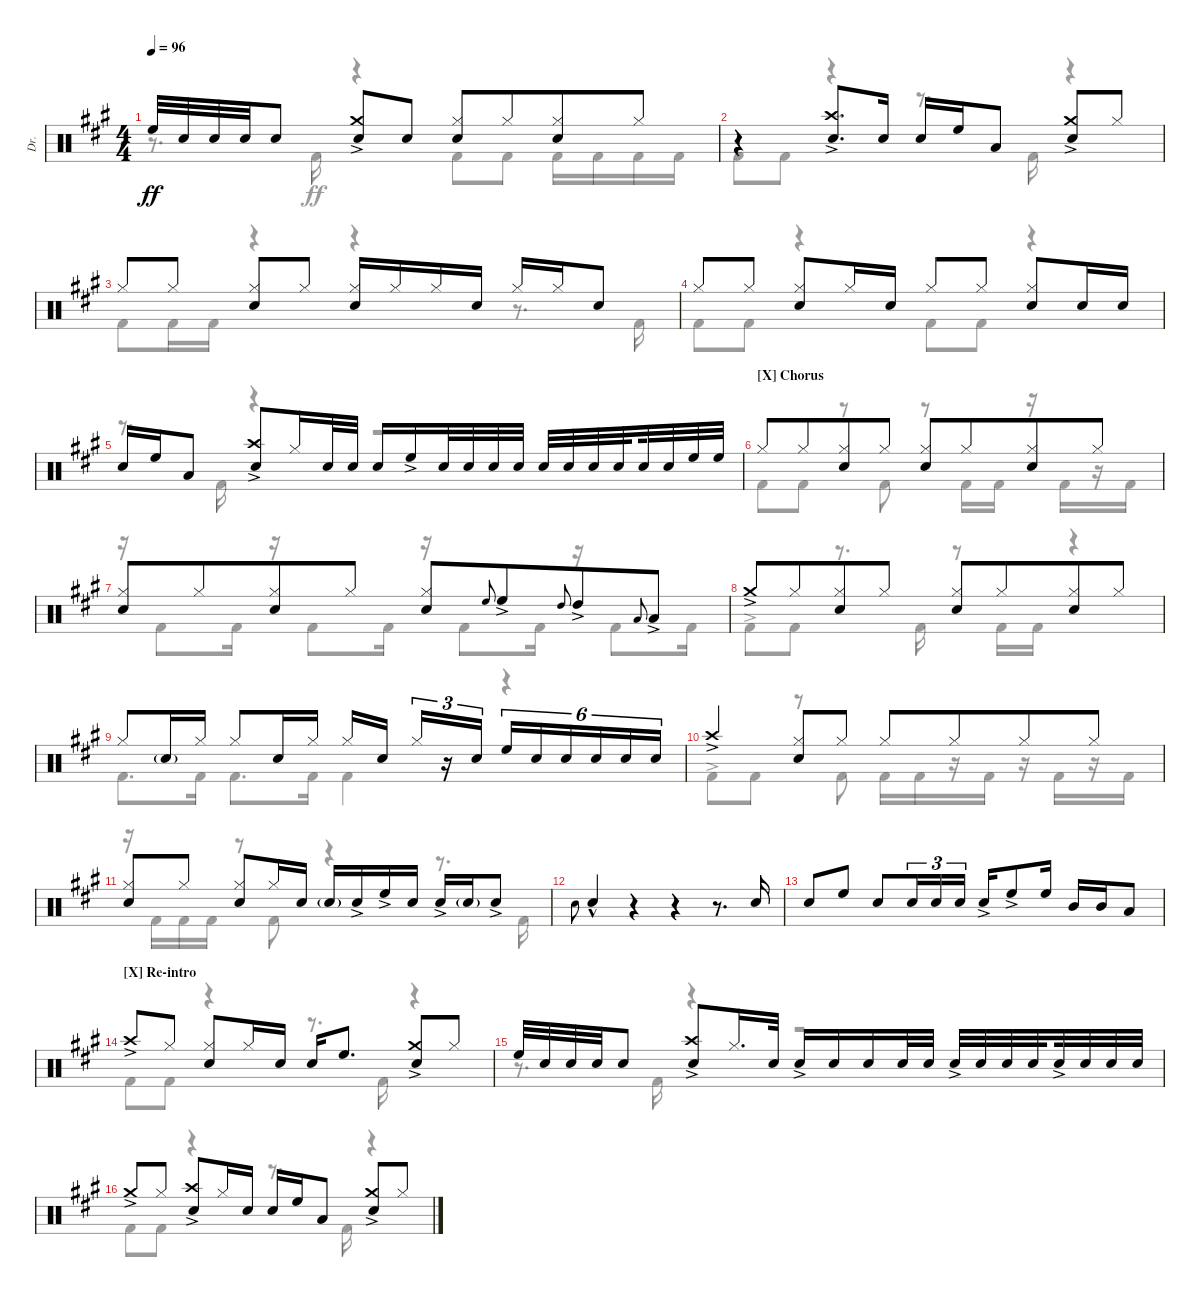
\defaultSystemsLayout 4
\bracketExtendMode groupsimilarinstruments
\otherSystemsTrackNameOrientation horizontal
\track ("Drums" "Dr.") {instrument percussion}
\staff {score}
\articulation defaults
\voice
\ts (4 4)
\tempo 96
\clef neutral
\ks a "High Floor Tom (hit)"{acc forcenatural}.32{dy ff} "Snare (hit) 2"{acc forcenatural}.32 "Snare (hit) 2"{acc forcenatural}.32 "Snare (hit) 2"{acc forcenatural}.32 "Snare (hit) 2"{acc forcenatural}.8
("Snare (hit) 2"{ac acc forcenatural} "Crash medium (hit)"{ac acc forcenatural}).8 "Snare (hit) 2"{acc forcenatural}.8 ("Snare (hit) 2"{acc forcenatural} "Hi-Hat (closed)"{acc forcenatural}).8 "Hi-Hat (closed)"{acc forcenatural}.8{beam merge} ("Hi-Hat (closed)"{acc forcenatural} "Snare (hit) 2"{acc forcenatural}).8 "Hi-Hat (closed)"{acc forcenatural}.8 |
r.4 ("Snare (hit) 2"{ac acc forcenatural} "Crash high (hit)"{ac acc forcenatural}).8{d} "Snare (hit) 2"{acc forcenatural}.16 "Snare (hit) 2"{acc forcenatural}.16 "High Floor Tom (hit)"{acc forcenatural}.16 "Low Tom (hit)"{acc forcenatural}.8 ("Snare (hit) 2"{ac acc forcenatural} "Crash medium (hit)"{ac acc forcenatural}).8 "Hi-Hat (closed)"{acc forcenatural}.8 |
"Hi-Hat (closed)"{acc forcenatural}.8 "Hi-Hat (closed)"{acc forcenatural}.8 ("Hi-Hat (closed)"{acc forcenatural} "Snare (hit) 2"{acc forcenatural}).8 "Hi-Hat (closed)"{acc forcenatural}.8 ("Hi-Hat (closed)"{acc forcenatural} "Snare (hit) 2"{acc forcenatural}).16 "Hi-Hat (closed)"{acc forcenatural}.16 "Hi-Hat (closed)"{acc forcenatural}.16 "Snare (hit) 2"{acc forcenatural}.16 "Hi-Hat (closed)"{acc forcenatural}.16 "Hi-Hat (closed)"{acc forcenatural}.16 "Snare (hit) 2"{acc forcenatural}.8 |
"Hi-Hat (closed)"{acc forcenatural}.8 "Hi-Hat (closed)"{acc forcenatural}.8 ("Hi-Hat (closed)"{acc forcenatural} "Snare (hit) 2"{acc forcenatural}).8 "Hi-Hat (closed)"{acc forcenatural}.16 "Snare (hit) 2"{acc forcenatural}.16 "Hi-Hat (closed)"{acc forcenatural}.8 "Hi-Hat (closed)"{acc forcenatural}.8 ("Hi-Hat (closed)"{acc forcenatural} "Snare (hit) 2"{acc forcenatural}).8 "Snare (hit) 2"{acc forcenatural}.16 "Snare (hit) 2"{acc forcenatural}.16 |
"Snare (hit) 2"{acc forcenatural}.16 "High Floor Tom (hit)"{acc forcenatural}.16 "Low Tom (hit)"{acc forcenatural}.8 ("Snare (hit) 2"{ac acc forcenatural} "Crash high (hit)"{ac acc forcenatural}).8 "Hi-Hat (closed)"{acc forcenatural}.16 "Snare (hit) 2"{acc forcenatural}.32 "Snare (hit) 2"{acc forcenatural}.32 "Snare (hit) 2"{acc forcenatural}.16 "High Floor Tom (hit)"{ac acc forcenatural}.16 "Snare (hit) 2"{acc forcenatural}.32 "Snare (hit) 2"{acc forcenatural}.32 "Snare (hit) 2"{acc forcenatural}.32 "Snare (hit) 2"{acc forcenatural}.32 "Snare (hit) 2"{acc forcenatural}.32 "Snare (hit) 2"{acc forcenatural}.32 "Snare (hit) 2"{acc forcenatural}.32 "Snare (hit) 2"{acc forcenatural}.32{beam splitsecondary} "Snare (hit) 2"{acc forcenatural}.32 "Snare (hit) 2"{acc forcenatural}.32 "High Floor Tom (hit)"{acc forcenatural}.32 "High Floor Tom (hit)"{acc forcenatural}.32 |
\section ("X" "Chorus")
"Hi-Hat (closed)"{acc forcenatural}.8 "Hi-Hat (closed)"{acc forcenatural}.8{beam merge} ("Hi-Hat (closed)"{acc forcenatural} "Snare (hit) 2"{acc forcenatural}).8 "Hi-Hat (closed)"{acc forcenatural}.8 ("Hi-Hat (closed)"{acc forcenatural} "Snare (hit) 2"{acc forcenatural}).8 "Hi-Hat (closed)"{acc forcenatural}.8{beam merge} ("Hi-Hat (closed)"{acc forcenatural} "Snare (hit) 2"{acc forcenatural}).8{beam merge} "Hi-Hat (closed)"{acc forcenatural}.8{beam merge} |
("Hi-Hat (closed)"{acc forcenatural} "Snare (hit) 2"{acc forcenatural}).8 "Hi-Hat (closed)"{acc forcenatural}.8{beam merge} ("Hi-Hat (closed)"{acc forcenatural} "Snare (hit) 2"{acc forcenatural}).8{beam merge} "Hi-Hat (closed)"{acc forcenatural}.8{beam split} ("Hi-Hat (closed)"{acc forcenatural} "Snare (hit) 2"{acc forcenatural}).8{beam merge} "High Floor Tom (hit)"{acc forcenatural}.8{gr onbeat beam merge} "High Floor Tom (hit)"{ac acc forcenatural}.8{beam merge} "High Tom (hit)"{acc forcenatural}.8{gr onbeat beam merge} "High Tom (hit)"{ac acc forcenatural}.8 "Low Tom (hit)"{acc forcenatural}.8{gr onbeat} "Low Tom (hit)"{ac acc forcenatural}.8 |
"Crash medium (hit)"{ac acc forcenatural}.8 "Hi-Hat (closed)"{acc forcenatural}.8{beam merge} ("Hi-Hat (closed)"{acc forcenatural} "Snare (hit) 2"{acc forcenatural}).8 "Hi-Hat (closed)"{acc forcenatural}.8 ("Hi-Hat (closed)"{acc forcenatural} "Snare (hit) 2"{acc forcenatural}).8 "Hi-Hat (closed)"{acc forcenatural}.8{beam merge} ("Hi-Hat (closed)"{acc forcenatural} "Snare (hit) 2"{acc forcenatural}).8{beam merge} "Hi-Hat (closed)"{acc forcenatural}.8{beam merge} |
"Hi-Hat (closed)"{acc forcenatural}.8 "Snare (hit) 2"{g acc forcenatural}.16 "Hi-Hat (closed)"{acc forcenatural}.16 "Hi-Hat (closed)"{acc forcenatural}.8 "Snare (hit) 2"{acc forcenatural}.16 "Hi-Hat (closed)"{acc forcenatural}.16 "Hi-Hat (closed)"{acc forcenatural}.16 "Snare (hit) 2"{acc forcenatural}.16{beam splitsecondary} "Hi-Hat (closed)"{acc forcenatural}.16{tu (3 2)} r.16{tu (3 2)} "Snare (hit) 2"{acc forcenatural}.16{tu (3 2)} "High Floor Tom (hit)"{acc forcenatural}.16{tu (6 4)} "Snare (hit) 2"{acc forcenatural}.16{tu (6 4)} "Snare (hit) 2"{acc forcenatural}.16{tu (6 4) beam merge} "Snare (hit) 2"{acc forcenatural}.16{tu (6 4)} "Snare (hit) 2"{acc forcenatural}.16{tu (6 4)} "Snare (hit) 2"{acc forcenatural}.16{tu (6 4)} |
"Crash high (hit)"{ac acc forcenatural}.4 ("Hi-Hat (closed)"{acc forcenatural} "Snare (hit) 2"{acc forcenatural}).8 "Hi-Hat (closed)"{acc forcenatural}.8 "Hi-Hat (closed)"{acc forcenatural}.8 "Hi-Hat (closed)"{acc forcenatural}.8{beam merge} "Hi-Hat (closed)"{acc forcenatural}.8{beam merge} "Hi-Hat (closed)"{acc forcenatural}.8{beam merge} |
("Snare (hit) 2"{acc forcenatural} "Hi-Hat (closed)"{acc forcenatural}).8 "Hi-Hat (closed)"{acc forcenatural}.8 ("Hi-Hat (closed)"{acc forcenatural} "Snare (hit) 2"{acc forcenatural}).8 "Hi-Hat (closed)"{acc forcenatural}.16 "Snare (hit) 2"{acc forcenatural}.16 "Snare (hit) 2"{g acc forcenatural}.16 "Snare (hit) 2"{ac acc forcenatural}.16 "High Floor Tom (hit)"{ac acc forcenatural}.16 "Snare (hit) 2"{acc forcenatural}.16 "Snare (hit) 2"{ac acc forcenatural}.16 "Snare (hit) 2"{g acc forcenatural}.16 "Snare (hit) 2"{ac acc forcenatural}.8 |
"Snare (hit) 2"{acc forcenatural}.8{gr onbeat beam invert} "Snare (hit) 2"{hac acc forcenatural}.4{beam invert} r.4{beam invert} r.4{beam invert} r.8{d beam invert} "Snare (hit) 2"{acc forcenatural}.16{beam invert} |
"Snare (hit) 2"{acc forcenatural}.8{beam invert} "High Floor Tom (hit)"{acc forcenatural}.8 "Snare (hit) 2"{acc forcenatural}.8{beam invert beam merge} "Snare (hit) 2"{acc forcenatural}.16{tu (3 2)} "Snare (hit) 2"{acc forcenatural}.16{tu (3 2)} "Snare (hit) 2"{acc forcenatural}.16{tu (3 2)} "Snare (hit) 2"{ac acc forcenatural}.16{beam invert} "High Floor Tom (hit)"{ac acc forcenatural}.8 "High Floor Tom (hit)"{acc forcenatural}.16 "Mid Tom (hit)"{acc forcenatural}.16 "Mid Tom (hit)"{acc forcenatural}.16 "Low Tom (hit)"{acc forcenatural}.8 |
\section ("X" "Re-intro")
"Crash high (hit)"{ac acc forcenatural}.8 "Hi-Hat (closed)"{acc forcenatural}.8 ("Hi-Hat (closed)"{acc forcenatural} "Snare (hit) 2"{acc forcenatural}).8 "Hi-Hat (closed)"{acc forcenatural}.16 "Snare (hit) 2"{acc forcenatural}.16 "Snare (hit) 2"{acc forcenatural}.16 "High Floor Tom (hit)"{acc forcenatural}.8{d} ("Snare (hit) 2"{ac acc forcenatural} "Crash medium (hit)"{ac acc forcenatural}).8 "Hi-Hat (closed)"{acc forcenatural}.8 |
"High Floor Tom (hit)"{acc forcenatural}.32 "Snare (hit) 2"{acc forcenatural}.32 "Snare (hit) 2"{acc forcenatural}.32 "Snare (hit) 2"{acc forcenatural}.32 "Snare (hit) 2"{acc forcenatural}.8 ("Snare (hit) 2"{ac acc forcenatural} "Crash high (hit)"{ac acc forcenatural}).8 "Hi-Hat (closed)"{acc forcenatural}.16{d} "Snare (hit) 2"{acc forcenatural}.32 "Snare (hit) 2"{ac acc forcenatural}.16 "Snare (hit) 2"{acc forcenatural}.16 "Snare (hit) 2"{acc forcenatural}.16 "Snare (hit) 2"{acc forcenatural}.32 "Snare (hit) 2"{acc forcenatural}.32 "Snare (hit) 2"{ac acc forcenatural}.32 "Snare (hit) 2"{acc forcenatural}.32 "Snare (hit) 2"{acc forcenatural}.32 "Snare (hit) 2"{acc forcenatural}.32{beam splitsecondary} "Snare (hit) 2"{ac acc forcenatural}.32 "Snare (hit) 2"{acc forcenatural}.32 "Snare (hit) 2"{acc forcenatural}.32 "Snare (hit) 2"{acc forcenatural}.32 |
"Crash medium (hit)"{ac acc forcenatural}.8 "Hi-Hat (closed)"{acc forcenatural}.8 ("Crash high (hit)"{ac acc forcenatural} "Snare (hit) 2"{ac acc forcenatural}).8 "Hi-Hat (closed)"{acc forcenatural}.16 "Snare (hit) 2"{acc forcenatural}.16 "Snare (hit) 2"{acc forcenatural}.16 "High Floor Tom (hit)"{acc forcenatural}.16 "Low Tom (hit)"{acc forcenatural}.8 ("Crash medium (hit)"{ac acc forcenatural} "Snare (hit) 2"{ac acc forcenatural}).8 "Hi-Hat (closed)"{acc forcenatural}.8
\voice
\clef neutral
\ottava regular
\simile none
\ks a
r.8{d dy ff} "Kick (hit) 2"{acc forcenatural}.16 r.4 "Kick (hit) 2"{acc forcenatural}.8 "Kick (hit) 2"{acc forcenatural}.8 "Kick (hit) 2"{acc forcenatural}.16 "Kick (hit) 2"{acc forcenatural}.16 "Kick (hit) 2"{acc forcenatural}.16 "Kick (hit) 2"{acc forcenatural}.16 |
"Kick (hit) 2"{acc forcenatural}.8 "Kick (hit) 2"{acc forcenatural}.8 r.4 r.8{d} "Kick (hit) 2"{acc forcenatural}.16 r.4 |
"Kick (hit) 2"{acc forcenatural}.8 "Kick (hit) 2"{acc forcenatural}.16 "Kick (hit) 2"{acc forcenatural}.16 r.4 r.4 r.8{d} "Kick (hit) 2"{acc forcenatural}.16 |
"Kick (hit) 2"{acc forcenatural}.8 "Kick (hit) 2"{acc forcenatural}.8 r.4 "Kick (hit) 2"{acc forcenatural}.8 "Kick (hit) 2"{acc forcenatural}.8 r.4 |
r.8{d} "Kick (hit) 2"{acc forcenatural}.16 r.4 r.2 |
"Kick (hit) 2"{acc forcenatural}.8 "Kick (hit) 2"{acc forcenatural}.8 r.8 "Kick (hit) 2"{acc forcenatural}.8 r.8 "Kick (hit) 2"{acc forcenatural}.16 "Kick (hit) 2"{acc forcenatural}.16 r.16 "Kick (hit) 2"{acc forcenatural}.16 r.16 "Kick (hit) 2"{acc forcenatural}.16 |
r.16 "Kick (hit) 2"{acc forcenatural}.8 "Kick (hit) 2"{acc forcenatural}.16 r.16 "Kick (hit) 2"{acc forcenatural}.8 "Kick (hit) 2"{acc forcenatural}.16 r.16 "Kick (hit) 2"{acc forcenatural}.8 "Kick (hit) 2"{acc forcenatural}.16 r.16 "Kick (hit) 2"{acc forcenatural}.8 "Kick (hit) 2"{acc forcenatural}.16 |
"Kick (hit) 2"{ac acc forcenatural}.8 "Kick (hit) 2"{acc forcenatural}.8 r.8{d} "Kick (hit) 2"{acc forcenatural}.16 r.8 "Kick (hit) 2"{acc forcenatural}.16 "Kick (hit) 2"{acc forcenatural}.16 r.4 |
"Kick (hit) 2"{acc forcenatural}.8{d} "Kick (hit) 2"{acc forcenatural}.16 "Kick (hit) 2"{acc forcenatural}.8{d} "Kick (hit) 2"{acc forcenatural}.16 "Kick (hit) 2"{acc forcenatural}.4 r.4 |
"Kick (hit) 2"{ac acc forcenatural}.8 "Kick (hit) 2"{acc forcenatural}.8 r.8 "Kick (hit) 2"{acc forcenatural}.8 "Kick (hit) 2"{acc forcenatural}.16 "Kick (hit) 2"{acc forcenatural}.16 r.16 "Kick (hit) 2"{acc forcenatural}.16 r.16 "Kick (hit) 2"{acc forcenatural}.16 r.16 "Kick (hit) 2"{acc forcenatural}.16 |
r.16 "Kick (hit) 2"{acc forcenatural}.16 "Kick (hit) 2"{acc forcenatural}.16 "Kick (hit) 2"{acc forcenatural}.16 r.8 "Kick (hit) 2"{acc forcenatural}.8 r.4 r.8{d} "Kick (hit) 2"{acc forcenatural}.16 |
|
|
"Kick (hit) 2"{acc forcenatural}.8 "Kick (hit) 2"{acc forcenatural}.8 r.4 r.8{d} "Kick (hit) 2"{acc forcenatural}.16 r.4 |
r.8{d} "Kick (hit) 2"{acc forcenatural}.16 r.4 r.2 |
"Kick (hit) 2"{acc forcenatural}.8 "Kick (hit) 2"{acc forcenatural}.8 r.4 r.8{d} "Kick (hit) 2"{acc forcenatural}.16 r.4
